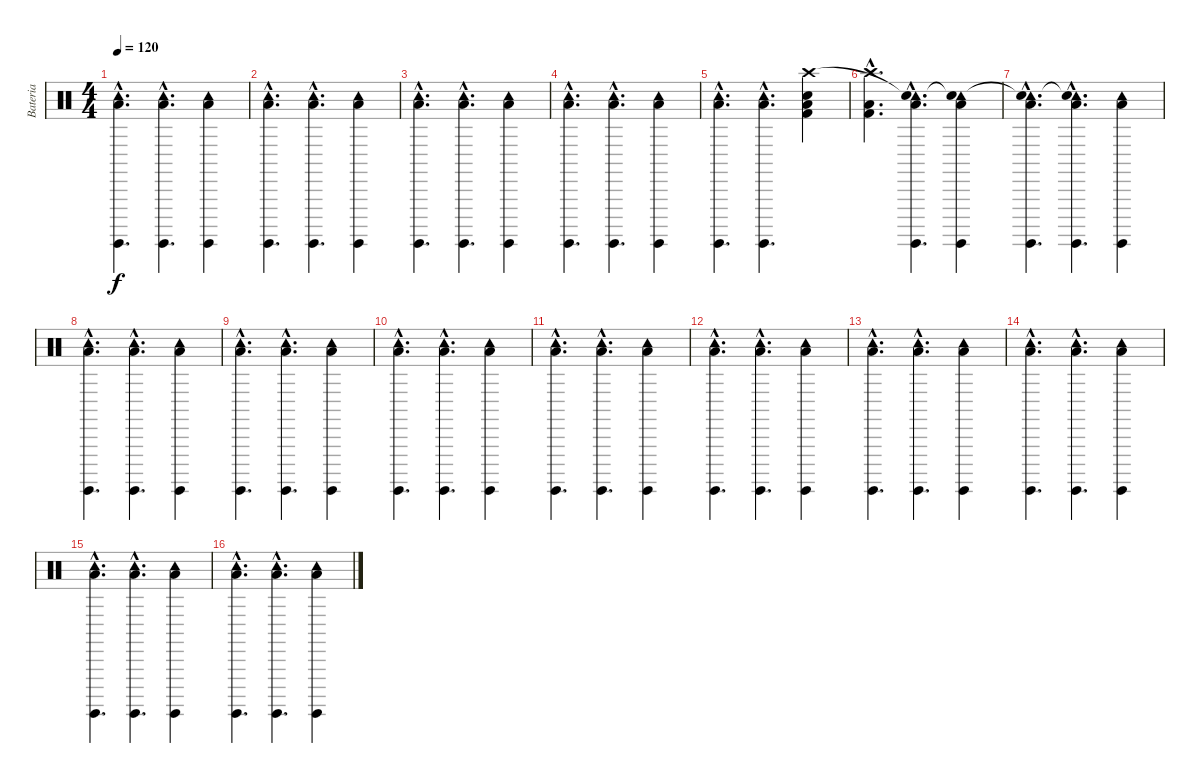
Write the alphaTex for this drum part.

\track ("Bateria" "Bateria") {instrument percussion}
\staff {score}
\articulation defaults
\ts (4 4)
\tempo 120
\clef neutral
\ks c
("Low Tom (hit)"{hac} "Surdo (hit)"{hac} "Tambourine (hit)"{hac}).4{d dy f} ("Low Tom (hit)"{hac} "Surdo (hit)"{hac} "Tambourine (hit)"{hac}).4{d} ("Low Tom (hit)" "Surdo (hit)" "Tambourine (hit)").4 |
("Low Tom (hit)"{hac} "Surdo (hit)"{hac} "Tambourine (hit)"{hac}).4{d} ("Low Tom (hit)"{hac} "Surdo (hit)"{hac} "Tambourine (hit)"{hac}).4{d} ("Low Tom (hit)" "Surdo (hit)" "Tambourine (hit)").4 |
("Low Tom (hit)"{hac} "Surdo (hit)"{hac} "Tambourine (hit)"{hac}).4{d} ("Low Tom (hit)"{hac} "Surdo (hit)"{hac} "Tambourine (hit)"{hac}).4{d} ("Low Tom (hit)" "Surdo (hit)" "Tambourine (hit)").4 |
("Low Tom (hit)"{hac} "Surdo (hit)"{hac} "Tambourine (hit)"{hac}).4{d} ("Low Tom (hit)"{hac} "Surdo (hit)"{hac} "Tambourine (hit)"{hac}).4{d} ("Low Tom (hit)" "Surdo (hit)" "Tambourine (hit)").4 |
("Low Tom (hit)"{hac} "Surdo (hit)"{hac} "Tambourine (hit)"{hac}).4{d} ("Low Tom (hit)"{hac} "Surdo (hit)"{hac} "Tambourine (hit)"{hac}).4{d} ("Kick (hit) 2" "Low Tom (hit)" "Electric Snare (hit)" "Crash high (hit)").4 |
("Kick (hit) 2"{hac} "Low Tom (hit)"{hac} "Crash high (hit)"{hac}).4{d} ("Low Tom (hit)"{hac} "Surdo (hit)"{hac} "Tambourine (hit)"{hac} "Snare (hit)"{hac t}).4{d} ("Low Tom (hit)" "Surdo (hit)" "Tambourine (hit)" "Snare (hit)"{t}).4 |
("Low Tom (hit)"{hac} "Surdo (hit)"{hac} "Tambourine (hit)"{hac} "Snare (hit)"{hac t}).4{d} ("Low Tom (hit)"{hac} "Surdo (hit)"{hac} "Tambourine (hit)"{hac} "Snare (hit)"{hac t}).4{d} ("Low Tom (hit)" "Surdo (hit)" "Tambourine (hit)").4 |
("Low Tom (hit)"{hac} "Surdo (hit)"{hac} "Tambourine (hit)"{hac}).4{d} ("Low Tom (hit)"{hac} "Surdo (hit)"{hac} "Tambourine (hit)"{hac}).4{d} ("Low Tom (hit)" "Surdo (hit)" "Tambourine (hit)").4 |
("Low Tom (hit)"{hac} "Surdo (hit)"{hac} "Tambourine (hit)"{hac}).4{d} ("Low Tom (hit)"{hac} "Surdo (hit)"{hac} "Tambourine (hit)"{hac}).4{d} ("Low Tom (hit)" "Surdo (hit)" "Tambourine (hit)").4 |
("Low Tom (hit)"{hac} "Surdo (hit)"{hac} "Tambourine (hit)"{hac}).4{d} ("Low Tom (hit)"{hac} "Surdo (hit)"{hac} "Tambourine (hit)"{hac}).4{d} ("Low Tom (hit)" "Surdo (hit)" "Tambourine (hit)").4 |
("Low Tom (hit)"{hac} "Surdo (hit)"{hac} "Tambourine (hit)"{hac}).4{d} ("Low Tom (hit)"{hac} "Surdo (hit)"{hac} "Tambourine (hit)"{hac}).4{d} ("Low Tom (hit)" "Surdo (hit)" "Tambourine (hit)").4 |
("Low Tom (hit)"{hac} "Surdo (hit)"{hac} "Tambourine (hit)"{hac}).4{d} ("Low Tom (hit)"{hac} "Surdo (hit)"{hac} "Tambourine (hit)"{hac}).4{d} ("Low Tom (hit)" "Surdo (hit)" "Tambourine (hit)").4 |
("Low Tom (hit)"{hac} "Surdo (hit)"{hac} "Tambourine (hit)"{hac}).4{d} ("Low Tom (hit)"{hac} "Surdo (hit)"{hac} "Tambourine (hit)"{hac}).4{d} ("Low Tom (hit)" "Surdo (hit)" "Tambourine (hit)").4 |
("Low Tom (hit)"{hac} "Surdo (hit)"{hac} "Tambourine (hit)"{hac}).4{d} ("Low Tom (hit)"{hac} "Surdo (hit)"{hac} "Tambourine (hit)"{hac}).4{d} ("Low Tom (hit)" "Surdo (hit)" "Tambourine (hit)").4 |
("Low Tom (hit)"{hac} "Surdo (hit)"{hac} "Tambourine (hit)"{hac}).4{d} ("Low Tom (hit)"{hac} "Surdo (hit)"{hac} "Tambourine (hit)"{hac}).4{d} ("Low Tom (hit)" "Surdo (hit)" "Tambourine (hit)").4 |
("Low Tom (hit)"{hac} "Surdo (hit)"{hac} "Tambourine (hit)"{hac}).4{d} ("Low Tom (hit)"{hac} "Surdo (hit)"{hac} "Tambourine (hit)"{hac}).4{d} ("Low Tom (hit)" "Surdo (hit)" "Tambourine (hit)").4
